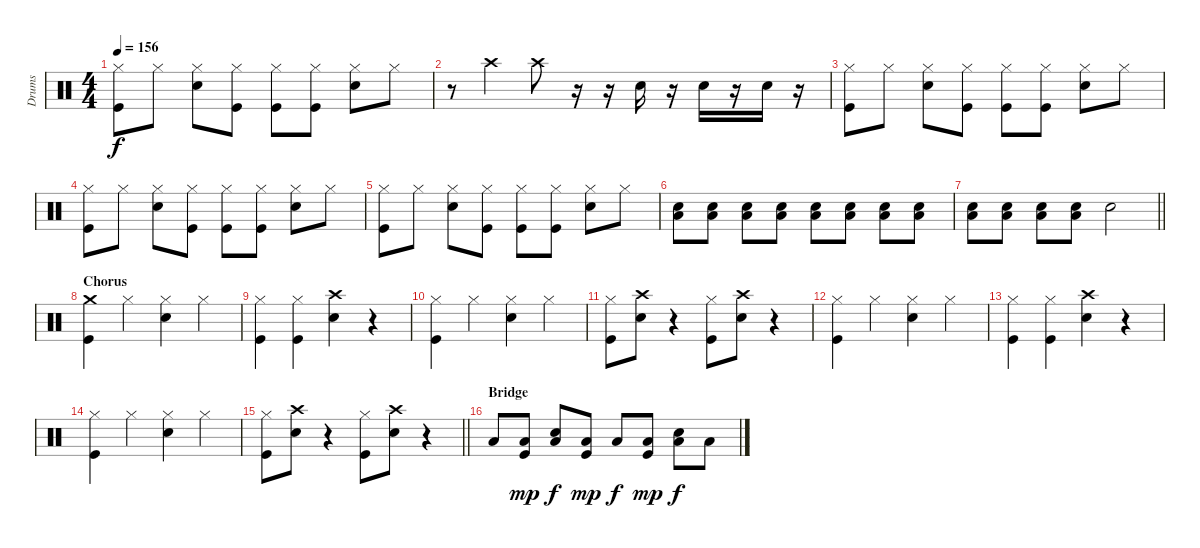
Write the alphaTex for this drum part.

\track ("Drums" "Drums") {instrument percussion}
\staff {score}
\articulation defaults
\ts (4 4)
\tempo 156
\clef neutral
\ks c
("Hi-Hat (closed)" "Kick (hit)").8{dy f} "Hi-Hat (closed)".8 ("Hi-Hat (closed)" "Snare (hit) 2").8 ("Hi-Hat (closed)" "Kick (hit)").8 ("Hi-Hat (closed)" "Kick (hit)").8 ("Hi-Hat (closed)" "Kick (hit)").8 ("Hi-Hat (closed)" "Snare (hit) 2").8 "Hi-Hat (closed)".8 |
r.8 "Crash high (hit)".4 "Crash high (hit)".8 r.16 r.16 "Snare (hit) 2".16 r.16 "Snare (hit) 2".16 r.16 "Snare (hit) 2".16 r.16 |
("Hi-Hat (closed)" "Kick (hit)").8 "Hi-Hat (closed)".8 ("Hi-Hat (closed)" "Snare (hit) 2").8 ("Hi-Hat (closed)" "Kick (hit)").8 ("Hi-Hat (closed)" "Kick (hit)").8 ("Hi-Hat (closed)" "Kick (hit)").8 ("Hi-Hat (closed)" "Snare (hit) 2").8 "Hi-Hat (closed)".8 |
("Hi-Hat (closed)" "Kick (hit)").8 "Hi-Hat (closed)".8 ("Hi-Hat (closed)" "Snare (hit) 2").8 ("Hi-Hat (closed)" "Kick (hit)").8 ("Hi-Hat (closed)" "Kick (hit)").8 ("Hi-Hat (closed)" "Kick (hit)").8 ("Hi-Hat (closed)" "Snare (hit) 2").8 "Hi-Hat (closed)".8 |
("Hi-Hat (closed)" "Kick (hit)").8 "Hi-Hat (closed)".8 ("Hi-Hat (closed)" "Snare (hit) 2").8 ("Hi-Hat (closed)" "Kick (hit)").8 ("Hi-Hat (closed)" "Kick (hit)").8 ("Hi-Hat (closed)" "Kick (hit)").8 ("Hi-Hat (closed)" "Snare (hit) 2").8 "Hi-Hat (closed)".8 |
("Low Tom (hit)" "Snare (hit) 2").8 ("Low Tom (hit)" "Snare (hit) 2").8 ("Low Tom (hit)" "Snare (hit) 2").8 ("Low Tom (hit)" "Snare (hit) 2").8 ("Low Tom (hit)" "Snare (hit) 2").8 ("Low Tom (hit)" "Snare (hit) 2").8 ("Low Tom (hit)" "Snare (hit) 2").8 ("Low Tom (hit)" "Snare (hit) 2").8 |
\barLineRight lightlight
("Low Tom (hit)" "Snare (hit) 2").8 ("Low Tom (hit)" "Snare (hit) 2").8 ("Low Tom (hit)" "Snare (hit) 2").8 ("Low Tom (hit)" "Snare (hit) 2").8 "Snare (hit) 2".2 |
\section ("" "Chorus")
("Crash medium (hit)" "Kick (hit)").4 "Hi-Hat (closed)".4 ("Hi-Hat (closed)" "Snare (hit) 2").4 "Hi-Hat (closed)".4 |
("Hi-Hat (closed)" "Kick (hit)").4 ("Hi-Hat (closed)" "Kick (hit)").4 ("Crash high (hit)" "Snare (hit) 2").4 r.4 |
("Hi-Hat (closed)" "Kick (hit)").4 "Hi-Hat (closed)".4 ("Hi-Hat (closed)" "Snare (hit) 2").4 "Hi-Hat (closed)".4 |
("Hi-Hat (closed)" "Kick (hit)").8 ("Crash high (hit)" "Snare (hit) 2").8 r.4 ("Hi-Hat (closed)" "Kick (hit)").8 ("Crash high (hit)" "Snare (hit) 2").8 r.4 |
("Hi-Hat (closed)" "Kick (hit)").4 "Hi-Hat (closed)".4 ("Hi-Hat (closed)" "Snare (hit) 2").4 "Hi-Hat (closed)".4 |
("Hi-Hat (closed)" "Kick (hit)").4 ("Hi-Hat (closed)" "Kick (hit)").4 ("Crash high (hit)" "Snare (hit) 2").4 r.4 |
("Hi-Hat (closed)" "Kick (hit)").4 "Hi-Hat (closed)".4 ("Hi-Hat (closed)" "Snare (hit) 2").4 "Hi-Hat (closed)".4 |
\barLineRight lightlight
("Hi-Hat (closed)" "Kick (hit)").8 ("Crash high (hit)" "Snare (hit) 2").8 r.4 ("Hi-Hat (closed)" "Kick (hit)").8 ("Crash high (hit)" "Snare (hit) 2").8 r.4 |
\section ("" "Bridge")
"Low Tom (hit)".8 ("Low Tom (hit)" "Kick (hit)").8{dy mp} ("Snare (hit) 2" "Low Tom (hit)").8{dy f} ("Low Tom (hit)" "Kick (hit)").8{dy mp} "Low Tom (hit)".8{dy f} ("Low Tom (hit)" "Kick (hit)").8{dy mp} ("Snare (hit) 2" "Low Tom (hit)").8{dy f} "Low Tom (hit)".8
